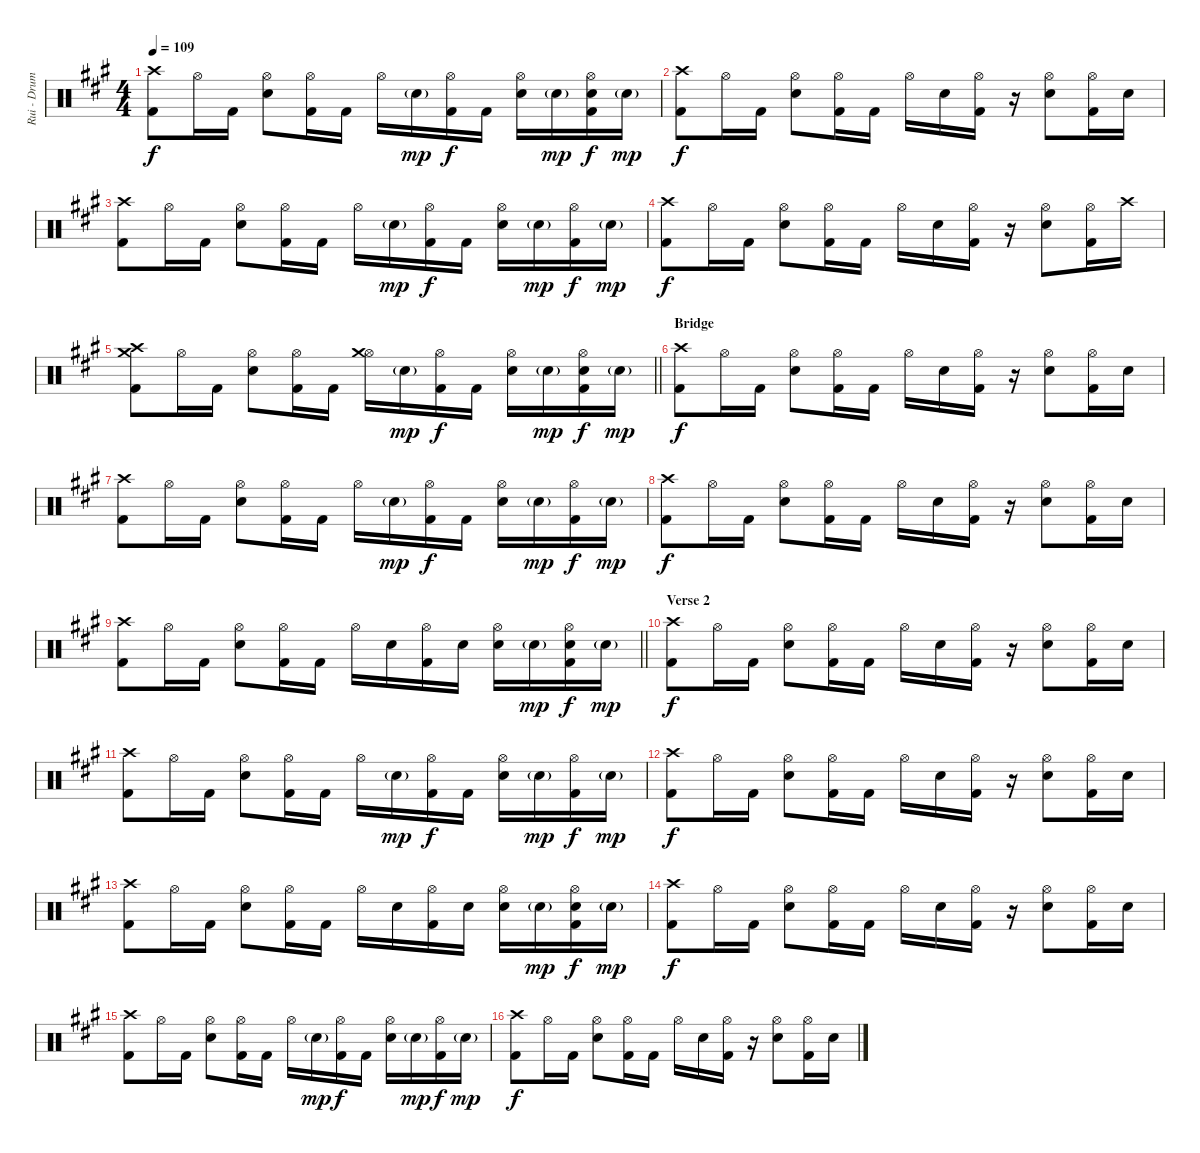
\track ("Rui - Drums" "Rui - Drum") {instrument percussion}
\staff {score}
\articulation defaults
\ts (4 4)
\tempo 109
\clef neutral
\ks f#minor
("Crash high (hit)" "Kick (hit) 2").8{dy f} "Hi-Hat (open)".16 "Kick (hit) 2".16 ("Hi-Hat (open)" "Electric Snare (hit)").8 ("Hi-Hat (open)" "Kick (hit) 2").16 "Kick (hit) 2".16 "Hi-Hat (open)".16 "Electric Snare (hit)"{g}.16{dy mp} ("Hi-Hat (open)" "Kick (hit) 2").16{dy f} "Kick (hit) 2".16 ("Hi-Hat (open)" "Electric Snare (hit)").16 "Electric Snare (hit)"{g}.16{dy mp} ("Hi-Hat (open)" "Electric Snare (hit)" "Kick (hit) 2").16{dy f} "Electric Snare (hit)"{g}.16{dy mp} |
("Crash high (hit)" "Kick (hit) 2").8{dy f} "Hi-Hat (open)".16 "Kick (hit) 2".16 ("Hi-Hat (open)" "Electric Snare (hit)").8 ("Hi-Hat (open)" "Kick (hit) 2").16 "Kick (hit) 2".16 "Hi-Hat (open)".16 "Electric Snare (hit)".16 ("Hi-Hat (open)" "Kick (hit) 2").16 r.16 ("Hi-Hat (open)" "Electric Snare (hit)").8 ("Hi-Hat (open)" "Kick (hit) 2").16 "Electric Snare (hit)".16 |
("Crash high (hit)" "Kick (hit) 2").8 "Hi-Hat (open)".16 "Kick (hit) 2".16 ("Hi-Hat (open)" "Electric Snare (hit)").8 ("Hi-Hat (open)" "Kick (hit) 2").16 "Kick (hit) 2".16 "Hi-Hat (open)".16 "Electric Snare (hit)"{g}.16{dy mp} ("Hi-Hat (open)" "Kick (hit) 2").16{dy f} "Kick (hit) 2".16 ("Hi-Hat (open)" "Electric Snare (hit)").16 "Electric Snare (hit)"{g}.16{dy mp} ("Hi-Hat (open)" "Kick (hit) 2").16{dy f} "Electric Snare (hit)"{g}.16{dy mp} |
("Crash high (hit)" "Kick (hit) 2").8{dy f} "Hi-Hat (open)".16 "Kick (hit) 2".16 ("Hi-Hat (open)" "Electric Snare (hit)").8 ("Hi-Hat (open)" "Kick (hit) 2").16 "Kick (hit) 2".16 "Hi-Hat (open)".16 "Electric Snare (hit)".16 ("Hi-Hat (open)" "Kick (hit) 2").16 r.16 ("Hi-Hat (open)" "Electric Snare (hit)").8 ("Hi-Hat (open)" "Kick (hit) 2").16 "Crash high (hit)".16 |
\barLineRight lightlight
("Crash high (hit)" "Kick (hit) 2" "Crash medium (hit)").8 "Hi-Hat (open)".16 "Kick (hit) 2".16 ("Hi-Hat (open)" "Electric Snare (hit)").8 ("Hi-Hat (open)" "Kick (hit) 2").16 "Kick (hit) 2".16 ("Hi-Hat (open)" "Crash medium (hit)").16 "Electric Snare (hit)"{g}.16{dy mp} ("Hi-Hat (open)" "Kick (hit) 2").16{dy f} "Kick (hit) 2".16 ("Hi-Hat (open)" "Electric Snare (hit)").16 "Electric Snare (hit)"{g}.16{dy mp} ("Hi-Hat (open)" "Electric Snare (hit)" "Kick (hit) 2").16{dy f} "Electric Snare (hit)"{g}.16{dy mp} |
\section ("" "Bridge")
("Crash high (hit)" "Kick (hit) 2").8{dy f} "Hi-Hat (open)".16 "Kick (hit) 2".16 ("Hi-Hat (open)" "Electric Snare (hit)").8 ("Hi-Hat (open)" "Kick (hit) 2").16 "Kick (hit) 2".16 "Hi-Hat (open)".16 "Electric Snare (hit)".16 ("Hi-Hat (open)" "Kick (hit) 2").16 r.16 ("Hi-Hat (open)" "Electric Snare (hit)").8 ("Hi-Hat (open)" "Kick (hit) 2").16 "Electric Snare (hit)".16 |
("Crash high (hit)" "Kick (hit) 2").8 "Hi-Hat (open)".16 "Kick (hit) 2".16 ("Hi-Hat (open)" "Electric Snare (hit)").8 ("Hi-Hat (open)" "Kick (hit) 2").16 "Kick (hit) 2".16 "Hi-Hat (open)".16 "Electric Snare (hit)"{g}.16{dy mp} ("Hi-Hat (open)" "Kick (hit) 2").16{dy f} "Kick (hit) 2".16 ("Hi-Hat (open)" "Electric Snare (hit)").16 "Electric Snare (hit)"{g}.16{dy mp} ("Hi-Hat (open)" "Kick (hit) 2").16{dy f} "Electric Snare (hit)"{g}.16{dy mp} |
("Crash high (hit)" "Kick (hit) 2").8{dy f} "Hi-Hat (open)".16 "Kick (hit) 2".16 ("Hi-Hat (open)" "Electric Snare (hit)").8 ("Hi-Hat (open)" "Kick (hit) 2").16 "Kick (hit) 2".16 "Hi-Hat (open)".16 "Electric Snare (hit)".16 ("Hi-Hat (open)" "Kick (hit) 2").16 r.16 ("Hi-Hat (open)" "Electric Snare (hit)").8 ("Hi-Hat (open)" "Kick (hit) 2").16 "Electric Snare (hit)".16 |
\barLineRight lightlight
("Crash high (hit)" "Kick (hit) 2").8 "Hi-Hat (open)".16 "Kick (hit) 2".16 ("Hi-Hat (open)" "Electric Snare (hit)").8 ("Hi-Hat (open)" "Kick (hit) 2").16 "Kick (hit) 2".16 "Hi-Hat (open)".16 "Electric Snare (hit)".16 ("Hi-Hat (open)" "Kick (hit) 2").16 "Electric Snare (hit)".16 ("Hi-Hat (open)" "Electric Snare (hit)").16 "Electric Snare (hit)"{g}.16{dy mp} ("Hi-Hat (open)" "Electric Snare (hit)" "Kick (hit) 2").16{dy f} "Electric Snare (hit)"{g}.16{dy mp} |
\section ("" "Verse 2")
("Crash high (hit)" "Kick (hit) 2").8{dy f} "Hi-Hat (open)".16 "Kick (hit) 2".16 ("Hi-Hat (open)" "Electric Snare (hit)").8 ("Hi-Hat (open)" "Kick (hit) 2").16 "Kick (hit) 2".16 "Hi-Hat (open)".16 "Electric Snare (hit)".16 ("Hi-Hat (open)" "Kick (hit) 2").16 r.16 ("Hi-Hat (open)" "Electric Snare (hit)").8 ("Hi-Hat (open)" "Kick (hit) 2").16 "Electric Snare (hit)".16 |
("Crash high (hit)" "Kick (hit) 2").8 "Hi-Hat (open)".16 "Kick (hit) 2".16 ("Hi-Hat (open)" "Electric Snare (hit)").8 ("Hi-Hat (open)" "Kick (hit) 2").16 "Kick (hit) 2".16 "Hi-Hat (open)".16 "Electric Snare (hit)"{g}.16{dy mp} ("Hi-Hat (open)" "Kick (hit) 2").16{dy f} "Kick (hit) 2".16 ("Hi-Hat (open)" "Electric Snare (hit)").16 "Electric Snare (hit)"{g}.16{dy mp} ("Hi-Hat (open)" "Kick (hit) 2").16{dy f} "Electric Snare (hit)"{g}.16{dy mp} |
("Crash high (hit)" "Kick (hit) 2").8{dy f} "Hi-Hat (open)".16 "Kick (hit) 2".16 ("Hi-Hat (open)" "Electric Snare (hit)").8 ("Hi-Hat (open)" "Kick (hit) 2").16 "Kick (hit) 2".16 "Hi-Hat (open)".16 "Electric Snare (hit)".16 ("Hi-Hat (open)" "Kick (hit) 2").16 r.16 ("Hi-Hat (open)" "Electric Snare (hit)").8 ("Hi-Hat (open)" "Kick (hit) 2").16 "Electric Snare (hit)".16 |
("Crash high (hit)" "Kick (hit) 2").8 "Hi-Hat (open)".16 "Kick (hit) 2".16 ("Hi-Hat (open)" "Electric Snare (hit)").8 ("Hi-Hat (open)" "Kick (hit) 2").16 "Kick (hit) 2".16 "Hi-Hat (open)".16 "Electric Snare (hit)".16 ("Hi-Hat (open)" "Kick (hit) 2").16 "Electric Snare (hit)".16 ("Hi-Hat (open)" "Electric Snare (hit)").16 "Electric Snare (hit)"{g}.16{dy mp} ("Hi-Hat (open)" "Electric Snare (hit)" "Kick (hit) 2").16{dy f} "Electric Snare (hit)"{g}.16{dy mp} |
("Crash high (hit)" "Kick (hit) 2").8{dy f} "Hi-Hat (open)".16 "Kick (hit) 2".16 ("Hi-Hat (open)" "Electric Snare (hit)").8 ("Hi-Hat (open)" "Kick (hit) 2").16 "Kick (hit) 2".16 "Hi-Hat (open)".16 "Electric Snare (hit)".16 ("Hi-Hat (open)" "Kick (hit) 2").16 r.16 ("Hi-Hat (open)" "Electric Snare (hit)").8 ("Hi-Hat (open)" "Kick (hit) 2").16 "Electric Snare (hit)".16 |
("Crash high (hit)" "Kick (hit) 2").8 "Hi-Hat (open)".16 "Kick (hit) 2".16 ("Hi-Hat (open)" "Electric Snare (hit)").8 ("Hi-Hat (open)" "Kick (hit) 2").16 "Kick (hit) 2".16 "Hi-Hat (open)".16 "Electric Snare (hit)"{g}.16{dy mp} ("Hi-Hat (open)" "Kick (hit) 2").16{dy f} "Kick (hit) 2".16 ("Hi-Hat (open)" "Electric Snare (hit)").16 "Electric Snare (hit)"{g}.16{dy mp} ("Hi-Hat (open)" "Kick (hit) 2").16{dy f} "Electric Snare (hit)"{g}.16{dy mp} |
("Crash high (hit)" "Kick (hit) 2").8{dy f} "Hi-Hat (open)".16 "Kick (hit) 2".16 ("Hi-Hat (open)" "Electric Snare (hit)").8 ("Hi-Hat (open)" "Kick (hit) 2").16 "Kick (hit) 2".16 "Hi-Hat (open)".16 "Electric Snare (hit)".16 ("Hi-Hat (open)" "Kick (hit) 2").16 r.16 ("Hi-Hat (open)" "Electric Snare (hit)").8 ("Hi-Hat (open)" "Kick (hit) 2").16 "Electric Snare (hit)".16
